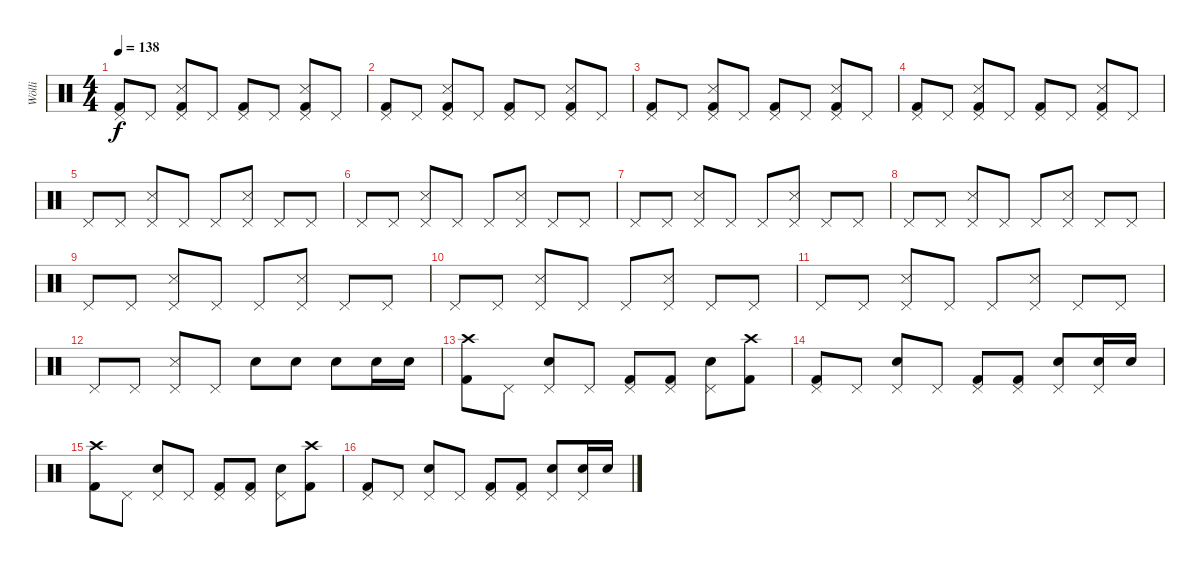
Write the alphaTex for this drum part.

\track ("Wölli" "Wölli") {instrument percussion}
\staff {score}
\articulation defaults
\ts (4 4)
\tempo 138
\clef neutral
\ks c
("Pedal Hi-Hat (hit)" "Kick (hit) 2").8{dy f} "Pedal Hi-Hat (hit)".8 ("Pedal Hi-Hat (hit)" "Snare (side stick) 3" "Kick (hit) 2").8 "Pedal Hi-Hat (hit)".8 ("Pedal Hi-Hat (hit)" "Kick (hit) 2").8 "Pedal Hi-Hat (hit)".8 ("Pedal Hi-Hat (hit)" "Snare (side stick) 3" "Kick (hit) 2").8 "Pedal Hi-Hat (hit)".8 |
("Pedal Hi-Hat (hit)" "Kick (hit) 2").8 "Pedal Hi-Hat (hit)".8 ("Pedal Hi-Hat (hit)" "Snare (side stick) 3" "Kick (hit) 2").8 "Pedal Hi-Hat (hit)".8 ("Pedal Hi-Hat (hit)" "Kick (hit) 2").8 "Pedal Hi-Hat (hit)".8 ("Pedal Hi-Hat (hit)" "Snare (side stick) 3" "Kick (hit) 2").8 "Pedal Hi-Hat (hit)".8 |
("Pedal Hi-Hat (hit)" "Kick (hit) 2").8 "Pedal Hi-Hat (hit)".8 ("Pedal Hi-Hat (hit)" "Snare (side stick) 3" "Kick (hit) 2").8 "Pedal Hi-Hat (hit)".8 ("Pedal Hi-Hat (hit)" "Kick (hit) 2").8 "Pedal Hi-Hat (hit)".8 ("Pedal Hi-Hat (hit)" "Snare (side stick) 3" "Kick (hit) 2").8 "Pedal Hi-Hat (hit)".8 |
("Pedal Hi-Hat (hit)" "Kick (hit) 2").8 "Pedal Hi-Hat (hit)".8 ("Pedal Hi-Hat (hit)" "Snare (side stick) 3" "Kick (hit) 2").8 "Pedal Hi-Hat (hit)".8 ("Pedal Hi-Hat (hit)" "Kick (hit) 2").8 "Pedal Hi-Hat (hit)".8 ("Pedal Hi-Hat (hit)" "Snare (side stick) 3" "Kick (hit) 2").8 "Pedal Hi-Hat (hit)".8 |
"Pedal Hi-Hat (hit)".8 "Pedal Hi-Hat (hit)".8 ("Pedal Hi-Hat (hit)" "Snare (side stick) 3").8 "Pedal Hi-Hat (hit)".8 "Pedal Hi-Hat (hit)".8 ("Pedal Hi-Hat (hit)" "Snare (side stick) 3").8 "Pedal Hi-Hat (hit)".8 "Pedal Hi-Hat (hit)".8 |
"Pedal Hi-Hat (hit)".8 "Pedal Hi-Hat (hit)".8 ("Pedal Hi-Hat (hit)" "Snare (side stick) 3").8 "Pedal Hi-Hat (hit)".8 "Pedal Hi-Hat (hit)".8 ("Pedal Hi-Hat (hit)" "Snare (side stick) 3").8 "Pedal Hi-Hat (hit)".8 "Pedal Hi-Hat (hit)".8 |
"Pedal Hi-Hat (hit)".8 "Pedal Hi-Hat (hit)".8 ("Pedal Hi-Hat (hit)" "Snare (side stick) 3").8 "Pedal Hi-Hat (hit)".8 "Pedal Hi-Hat (hit)".8 ("Pedal Hi-Hat (hit)" "Snare (side stick) 3").8 "Pedal Hi-Hat (hit)".8 "Pedal Hi-Hat (hit)".8 |
"Pedal Hi-Hat (hit)".8 "Pedal Hi-Hat (hit)".8 ("Pedal Hi-Hat (hit)" "Snare (side stick) 3").8 "Pedal Hi-Hat (hit)".8 "Pedal Hi-Hat (hit)".8 ("Pedal Hi-Hat (hit)" "Snare (side stick) 3").8 "Pedal Hi-Hat (hit)".8 "Pedal Hi-Hat (hit)".8 |
"Pedal Hi-Hat (hit)".8 "Pedal Hi-Hat (hit)".8 ("Pedal Hi-Hat (hit)" "Snare (side stick) 3").8 "Pedal Hi-Hat (hit)".8 "Pedal Hi-Hat (hit)".8 ("Pedal Hi-Hat (hit)" "Snare (side stick) 3").8 "Pedal Hi-Hat (hit)".8 "Pedal Hi-Hat (hit)".8 |
"Pedal Hi-Hat (hit)".8 "Pedal Hi-Hat (hit)".8 ("Pedal Hi-Hat (hit)" "Snare (side stick) 3").8 "Pedal Hi-Hat (hit)".8 "Pedal Hi-Hat (hit)".8 ("Pedal Hi-Hat (hit)" "Snare (side stick) 3").8 "Pedal Hi-Hat (hit)".8 "Pedal Hi-Hat (hit)".8 |
"Pedal Hi-Hat (hit)".8 "Pedal Hi-Hat (hit)".8 ("Pedal Hi-Hat (hit)" "Snare (side stick) 3").8 "Pedal Hi-Hat (hit)".8 "Pedal Hi-Hat (hit)".8 ("Pedal Hi-Hat (hit)" "Snare (side stick) 3").8 "Pedal Hi-Hat (hit)".8 "Pedal Hi-Hat (hit)".8 |
"Pedal Hi-Hat (hit)".8 "Pedal Hi-Hat (hit)".8 ("Pedal Hi-Hat (hit)" "Snare (side stick) 3").8 "Pedal Hi-Hat (hit)".8 "Snare (hit) 2".8 "Snare (hit) 2".8 "Snare (hit) 2".8 "Snare (hit) 2".16 "Snare (hit) 2".16 |
("Crash high (hit)" "Kick (hit) 2").8 "Pedal Hi-Hat (hit)".8 ("Pedal Hi-Hat (hit)" "Snare (hit) 2").8 "Pedal Hi-Hat (hit)".8 ("Pedal Hi-Hat (hit)" "Kick (hit) 2").8 ("Pedal Hi-Hat (hit)" "Kick (hit) 2").8 ("Pedal Hi-Hat (hit)" "Snare (hit) 2").8 ("Crash high (hit)" "Kick (hit) 2").8 |
("Pedal Hi-Hat (hit)" "Kick (hit) 2").8 "Pedal Hi-Hat (hit)".8 ("Pedal Hi-Hat (hit)" "Snare (hit) 2").8 "Pedal Hi-Hat (hit)".8 ("Pedal Hi-Hat (hit)" "Kick (hit) 2").8 ("Pedal Hi-Hat (hit)" "Kick (hit) 2").8 ("Pedal Hi-Hat (hit)" "Snare (hit) 2").8 ("Pedal Hi-Hat (hit)" "Snare (hit) 2").16 "Snare (hit) 2".16 |
("Crash high (hit)" "Kick (hit) 2").8 "Pedal Hi-Hat (hit)".8 ("Pedal Hi-Hat (hit)" "Snare (hit) 2").8 "Pedal Hi-Hat (hit)".8 ("Pedal Hi-Hat (hit)" "Kick (hit) 2").8 ("Pedal Hi-Hat (hit)" "Kick (hit) 2").8 ("Pedal Hi-Hat (hit)" "Snare (hit) 2").8 ("Crash high (hit)" "Kick (hit) 2").8 |
("Pedal Hi-Hat (hit)" "Kick (hit) 2").8 "Pedal Hi-Hat (hit)".8 ("Pedal Hi-Hat (hit)" "Snare (hit) 2").8 "Pedal Hi-Hat (hit)".8 ("Pedal Hi-Hat (hit)" "Kick (hit) 2").8 ("Pedal Hi-Hat (hit)" "Kick (hit) 2").8 ("Pedal Hi-Hat (hit)" "Snare (hit) 2").8 ("Pedal Hi-Hat (hit)" "Snare (hit) 2").16 "Snare (hit) 2".16
